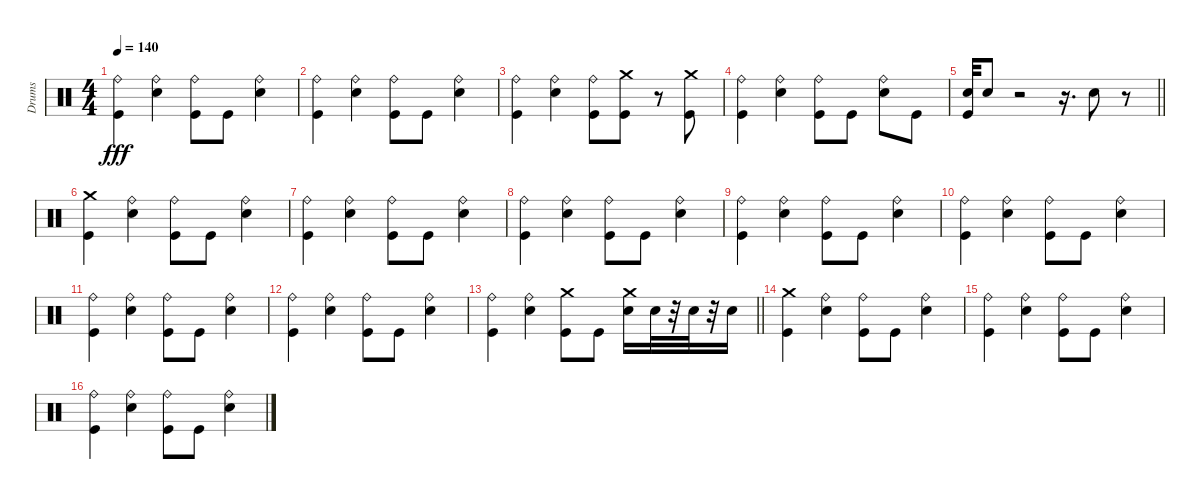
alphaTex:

\track ("Drums" "Drums") {instrument percussion}
\staff {score}
\articulation defaults
\ts (4 4)
\tempo 140
\clef neutral
\ks c
("Ride (bell)" "Kick (hit)").4{dy fff} ("Ride (bell)" "Electric Snare (hit)").4 ("Ride (bell)" "Kick (hit)").8 "Kick (hit)".8 ("Ride (bell)" "Electric Snare (hit)").4 |
("Ride (bell)" "Kick (hit)").4 ("Ride (bell)" "Electric Snare (hit)").4 ("Ride (bell)" "Kick (hit)").8 "Kick (hit)".8 ("Ride (bell)" "Electric Snare (hit)").4 |
("Ride (bell)" "Kick (hit)").4 ("Ride (bell)" "Electric Snare (hit)").4 ("Ride (bell)" "Kick (hit)").8 ("Crash medium (hit)" "Kick (hit)").8 r.8 ("Crash medium (hit)" "Kick (hit)").8 |
("Ride (bell)" "Kick (hit)").4 ("Ride (bell)" "Electric Snare (hit)").4 ("Ride (bell)" "Kick (hit)").8 "Kick (hit)".8 ("Ride (bell)" "Electric Snare (hit)").8 "Kick (hit)".8 |
\barLineRight lightlight
("Electric Snare (hit)" "Kick (hit)").32 "Electric Snare (hit)".8 r.2 r.16{d} "Electric Snare (hit)".8 r.8 |
("Crash medium (hit)" "Kick (hit)").4 ("Ride (bell)" "Electric Snare (hit)").4 ("Ride (bell)" "Kick (hit)").8 "Kick (hit)".8 ("Ride (bell)" "Electric Snare (hit)").4 |
("Ride (bell)" "Kick (hit)").4 ("Ride (bell)" "Electric Snare (hit)").4 ("Ride (bell)" "Kick (hit)").8 "Kick (hit)".8 ("Ride (bell)" "Electric Snare (hit)").4 |
("Ride (bell)" "Kick (hit)").4 ("Ride (bell)" "Electric Snare (hit)").4 ("Ride (bell)" "Kick (hit)").8 "Kick (hit)".8 ("Ride (bell)" "Electric Snare (hit)").4 |
("Ride (bell)" "Kick (hit)").4 ("Ride (bell)" "Electric Snare (hit)").4 ("Ride (bell)" "Kick (hit)").8 "Kick (hit)".8 ("Ride (bell)" "Electric Snare (hit)").4 |
("Ride (bell)" "Kick (hit)").4 ("Ride (bell)" "Electric Snare (hit)").4 ("Ride (bell)" "Kick (hit)").8 "Kick (hit)".8 ("Ride (bell)" "Electric Snare (hit)").4 |
("Ride (bell)" "Kick (hit)").4 ("Ride (bell)" "Electric Snare (hit)").4 ("Ride (bell)" "Kick (hit)").8 "Kick (hit)".8 ("Ride (bell)" "Electric Snare (hit)").4 |
("Ride (bell)" "Kick (hit)").4 ("Ride (bell)" "Electric Snare (hit)").4 ("Ride (bell)" "Kick (hit)").8 "Kick (hit)".8 ("Ride (bell)" "Electric Snare (hit)").4 |
\barLineRight lightlight
("Ride (bell)" "Kick (hit)").4 ("Ride (bell)" "Electric Snare (hit)").4 ("Crash medium (hit)" "Kick (hit)").8 "Kick (hit)".8 ("Crash medium (hit)" "Electric Snare (hit)").16 "Electric Snare (hit)".32 r.32 "Electric Snare (hit)".32 r.32 "Electric Snare (hit)".16 |
("Crash medium (hit)" "Kick (hit)").4 ("Ride (bell)" "Electric Snare (hit)").4 ("Ride (bell)" "Kick (hit)").8 "Kick (hit)".8 ("Ride (bell)" "Electric Snare (hit)").4 |
("Ride (bell)" "Kick (hit)").4 ("Ride (bell)" "Electric Snare (hit)").4 ("Ride (bell)" "Kick (hit)").8 "Kick (hit)".8 ("Ride (bell)" "Electric Snare (hit)").4 |
("Ride (bell)" "Kick (hit)").4 ("Ride (bell)" "Electric Snare (hit)").4 ("Ride (bell)" "Kick (hit)").8 "Kick (hit)".8 ("Ride (bell)" "Electric Snare (hit)").4
